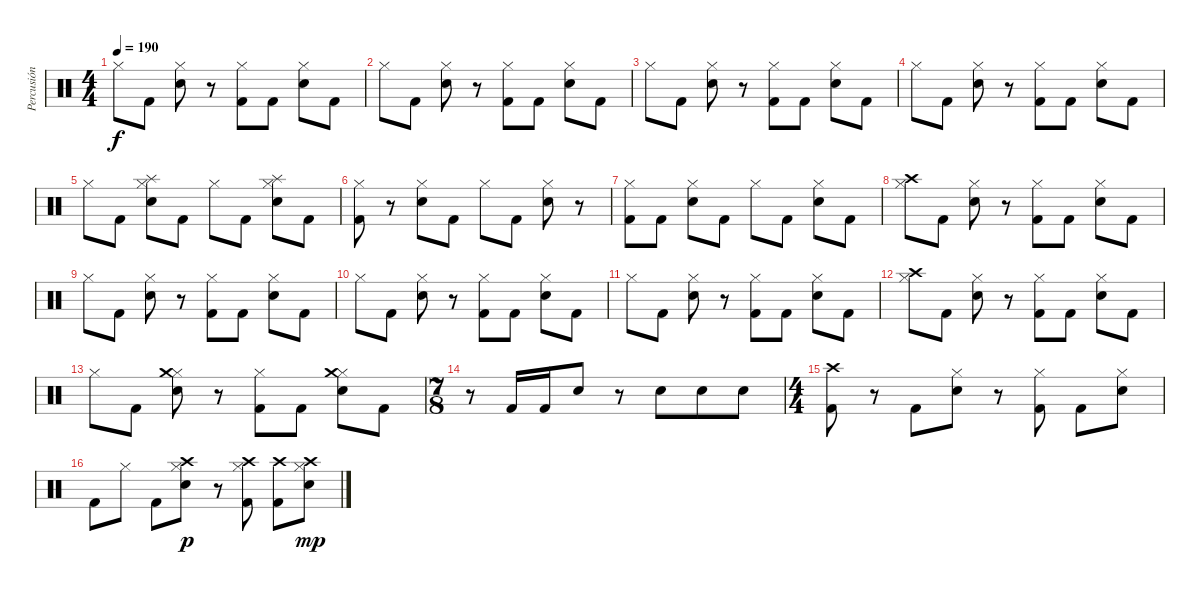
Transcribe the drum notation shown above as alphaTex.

\track ("Percusión" "Percusión") {instrument percussion}
\staff {score}
\articulation defaults
\ts (4 4)
\tempo 190
\clef neutral
\ks c "Hi-Hat (closed)".8{dy f} "Kick (hit) 2".8
("Hi-Hat (closed)" "Snare (hit) 2").8 r.8 ("Hi-Hat (closed)" "Kick (hit) 2").8 "Kick (hit) 2".8 ("Hi-Hat (closed)" "Snare (hit) 2").8 "Kick (hit) 2".8 |
"Hi-Hat (closed)".8 "Kick (hit) 2".8 ("Hi-Hat (closed)" "Snare (hit) 2").8 r.8 ("Hi-Hat (closed)" "Kick (hit) 2").8 "Kick (hit) 2".8 ("Hi-Hat (closed)" "Snare (hit) 2").8 "Kick (hit) 2".8 |
"Hi-Hat (closed)".8 "Kick (hit) 2".8 ("Hi-Hat (closed)" "Snare (hit) 2").8 r.8 ("Hi-Hat (closed)" "Kick (hit) 2").8 "Kick (hit) 2".8 ("Hi-Hat (closed)" "Snare (hit) 2").8 "Kick (hit) 2".8 |
"Hi-Hat (closed)".8 "Kick (hit) 2".8 ("Hi-Hat (closed)" "Snare (hit) 2").8 r.8 ("Hi-Hat (closed)" "Kick (hit) 2").8 "Kick (hit) 2".8 ("Hi-Hat (closed)" "Snare (hit) 2").8 "Kick (hit) 2".8 |
"Hi-Hat (closed)".8 "Kick (hit) 2".8 ("Hi-Hat (closed)" "Splash (hit)" "Snare (hit) 2").8 "Kick (hit) 2".8 "Hi-Hat (closed)".8 "Kick (hit) 2".8 ("Hi-Hat (closed)" "Splash (hit)" "Snare (hit) 2").8 "Kick (hit) 2".8 |
("Hi-Hat (closed)" "Kick (hit) 2").8 r.8 ("Hi-Hat (closed)" "Snare (hit) 2").8 "Kick (hit) 2".8 "Hi-Hat (closed)".8 "Kick (hit) 2".8 ("Hi-Hat (closed)" "Snare (hit) 2").8 r.8 |
("Hi-Hat (closed)" "Kick (hit) 2").8 "Kick (hit) 2".8 ("Hi-Hat (closed)" "Snare (hit) 2").8 "Kick (hit) 2".8 "Hi-Hat (closed)".8 "Kick (hit) 2".8 ("Hi-Hat (closed)" "Snare (hit) 2").8 "Kick (hit) 2".8 |
("Hi-Hat (closed)" "Crash high (hit)").8 "Kick (hit) 2".8 ("Hi-Hat (closed)" "Snare (hit) 2").8 r.8 ("Hi-Hat (closed)" "Kick (hit) 2").8 "Kick (hit) 2".8 ("Hi-Hat (closed)" "Snare (hit) 2").8 "Kick (hit) 2".8 |
"Hi-Hat (closed)".8 "Kick (hit) 2".8 ("Hi-Hat (closed)" "Snare (hit) 2").8 r.8 ("Hi-Hat (closed)" "Kick (hit) 2").8 "Kick (hit) 2".8 ("Hi-Hat (closed)" "Snare (hit) 2").8 "Kick (hit) 2".8 |
"Hi-Hat (closed)".8 "Kick (hit) 2".8 ("Hi-Hat (closed)" "Snare (hit) 2").8 r.8 ("Hi-Hat (closed)" "Kick (hit) 2").8 "Kick (hit) 2".8 ("Hi-Hat (closed)" "Snare (hit) 2").8 "Kick (hit) 2".8 |
"Hi-Hat (closed)".8 "Kick (hit) 2".8 ("Hi-Hat (closed)" "Snare (hit) 2").8 r.8 ("Hi-Hat (closed)" "Kick (hit) 2").8 "Kick (hit) 2".8 ("Hi-Hat (closed)" "Snare (hit) 2").8 "Kick (hit) 2".8 |
("Hi-Hat (closed)" "Crash high (hit)").8 "Kick (hit) 2".8 ("Hi-Hat (closed)" "Snare (hit) 2").8 r.8 ("Hi-Hat (closed)" "Kick (hit) 2").8 "Kick (hit) 2".8 ("Hi-Hat (closed)" "Snare (hit) 2").8 "Kick (hit) 2".8 |
"Hi-Hat (closed)".8 "Kick (hit) 2".8 ("Hi-Hat (closed)" "Crash medium (hit)" "Snare (hit) 2").8 r.8 ("Hi-Hat (closed)" "Kick (hit) 2").8 "Kick (hit) 2".8 ("Hi-Hat (closed)" "Crash medium (hit)" "Snare (hit) 2").8 "Kick (hit) 2".8 |
\ts (7 8)
r.8 "Kick (hit) 2".16 "Kick (hit) 2".16 "Snare (hit) 2".8 r.8 "Snare (hit) 2".8 "Snare (hit) 2".8 "Snare (hit) 2".8 |
\ts (4 4)
("Crash high (hit)" "Kick (hit) 2").8 r.8 "Kick (hit) 2".8 ("Hi-Hat (closed)" "Snare (hit) 2").8 r.8 ("Hi-Hat (closed)" "Kick (hit) 2").8 "Kick (hit) 2".8 ("Hi-Hat (closed)" "Snare (hit) 2").8 |
"Kick (hit) 2".8 "Hi-Hat (closed)".8 "Kick (hit) 2".8 ("Crash high (hit)" "Hi-Hat (closed)" "Snare (hit) 2").8{dy p} r.8 ("Crash high (hit)" "Hi-Hat (closed)" "Kick (hit) 2").8 ("Crash high (hit)" "Kick (hit) 2").8 ("Crash high (hit)" "Hi-Hat (closed)" "Snare (hit) 2").8{dy mp}
